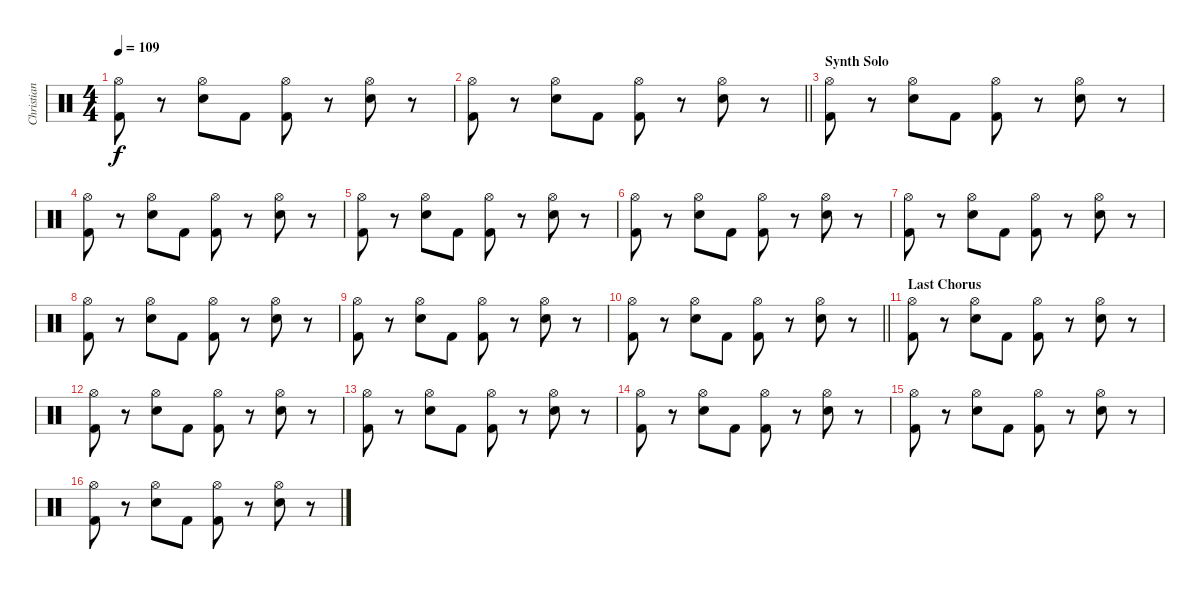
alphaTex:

\track ("Christian Eigner - Drums" "Christian ") {instrument percussion}
\staff {score}
\articulation defaults
\ts (4 4)
\tempo 109
\clef neutral
\ks c
("Hi-Hat (open)" "Kick (hit) 2").8{dy f} r.8 ("Hi-Hat (open)" "Snare (hit) 2").8 "Kick (hit) 2".8 ("Hi-Hat (open)" "Kick (hit) 2").8 r.8 ("Hi-Hat (open)" "Snare (hit) 2").8 r.8 |
\barLineRight lightlight
("Hi-Hat (open)" "Kick (hit) 2").8 r.8 ("Hi-Hat (open)" "Snare (hit) 2").8 "Kick (hit) 2".8 ("Hi-Hat (open)" "Kick (hit) 2").8 r.8 ("Hi-Hat (open)" "Snare (hit) 2").8 r.8 |
\section ("" "Synth Solo")
("Hi-Hat (open)" "Kick (hit) 2").8 r.8 ("Hi-Hat (open)" "Snare (hit) 2").8 "Kick (hit) 2".8 ("Hi-Hat (open)" "Kick (hit) 2").8 r.8 ("Hi-Hat (open)" "Snare (hit) 2").8 r.8 |
("Hi-Hat (open)" "Kick (hit) 2").8 r.8 ("Hi-Hat (open)" "Snare (hit) 2").8 "Kick (hit) 2".8 ("Hi-Hat (open)" "Kick (hit) 2").8 r.8 ("Hi-Hat (open)" "Snare (hit) 2").8 r.8 |
("Hi-Hat (open)" "Kick (hit) 2").8 r.8 ("Hi-Hat (open)" "Snare (hit) 2").8 "Kick (hit) 2".8 ("Hi-Hat (open)" "Kick (hit) 2").8 r.8 ("Hi-Hat (open)" "Snare (hit) 2").8 r.8 |
("Hi-Hat (open)" "Kick (hit) 2").8 r.8 ("Hi-Hat (open)" "Snare (hit) 2").8 "Kick (hit) 2".8 ("Hi-Hat (open)" "Kick (hit) 2").8 r.8 ("Hi-Hat (open)" "Snare (hit) 2").8 r.8 |
("Hi-Hat (open)" "Kick (hit) 2").8 r.8 ("Hi-Hat (open)" "Snare (hit) 2").8 "Kick (hit) 2".8 ("Hi-Hat (open)" "Kick (hit) 2").8 r.8 ("Hi-Hat (open)" "Snare (hit) 2").8 r.8 |
("Hi-Hat (open)" "Kick (hit) 2").8 r.8 ("Hi-Hat (open)" "Snare (hit) 2").8 "Kick (hit) 2".8 ("Hi-Hat (open)" "Kick (hit) 2").8 r.8 ("Hi-Hat (open)" "Snare (hit) 2").8 r.8 |
("Hi-Hat (open)" "Kick (hit) 2").8 r.8 ("Hi-Hat (open)" "Snare (hit) 2").8 "Kick (hit) 2".8 ("Hi-Hat (open)" "Kick (hit) 2").8 r.8 ("Hi-Hat (open)" "Snare (hit) 2").8 r.8 |
\barLineRight lightlight
("Hi-Hat (open)" "Kick (hit) 2").8 r.8 ("Hi-Hat (open)" "Snare (hit) 2").8 "Kick (hit) 2".8 ("Hi-Hat (open)" "Kick (hit) 2").8 r.8 ("Hi-Hat (open)" "Snare (hit) 2").8 r.8 |
\section ("" "Last Chorus")
("Hi-Hat (open)" "Kick (hit) 2").8 r.8 ("Hi-Hat (open)" "Snare (hit) 2").8 "Kick (hit) 2".8 ("Hi-Hat (open)" "Kick (hit) 2").8 r.8 ("Hi-Hat (open)" "Snare (hit) 2").8 r.8 |
("Hi-Hat (open)" "Kick (hit) 2").8 r.8 ("Hi-Hat (open)" "Snare (hit) 2").8 "Kick (hit) 2".8 ("Hi-Hat (open)" "Kick (hit) 2").8 r.8 ("Hi-Hat (open)" "Snare (hit) 2").8 r.8 |
("Hi-Hat (open)" "Kick (hit) 2").8 r.8 ("Hi-Hat (open)" "Snare (hit) 2").8 "Kick (hit) 2".8 ("Hi-Hat (open)" "Kick (hit) 2").8 r.8 ("Hi-Hat (open)" "Snare (hit) 2").8 r.8 |
("Hi-Hat (open)" "Kick (hit) 2").8 r.8 ("Hi-Hat (open)" "Snare (hit) 2").8 "Kick (hit) 2".8 ("Hi-Hat (open)" "Kick (hit) 2").8 r.8 ("Hi-Hat (open)" "Snare (hit) 2").8 r.8 |
("Hi-Hat (open)" "Kick (hit) 2").8 r.8 ("Hi-Hat (open)" "Snare (hit) 2").8 "Kick (hit) 2".8 ("Hi-Hat (open)" "Kick (hit) 2").8 r.8 ("Hi-Hat (open)" "Snare (hit) 2").8 r.8 |
("Hi-Hat (open)" "Kick (hit) 2").8 r.8 ("Hi-Hat (open)" "Snare (hit) 2").8 "Kick (hit) 2".8 ("Hi-Hat (open)" "Kick (hit) 2").8 r.8 ("Hi-Hat (open)" "Snare (hit) 2").8 r.8
